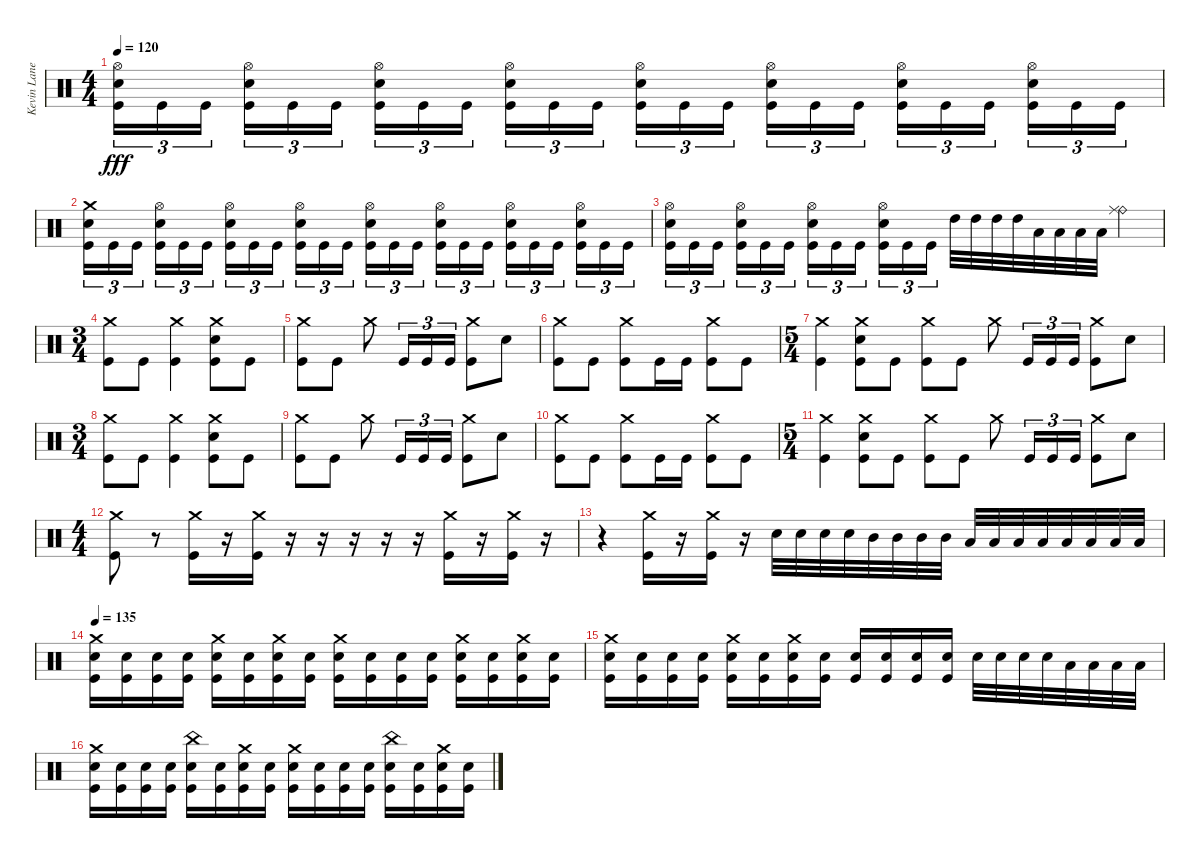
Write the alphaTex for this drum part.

\track ("Kevin Lane" "Kevin Lane") {instrument percussion}
\staff {score}
\articulation defaults
\ts (4 4)
\tempo 120
\clef neutral
\ks c
("Hi-Hat (open)" "Snare (hit) 2" "Kick (hit)").16{tu (3 2) dy fff} "Kick (hit)".16{tu (3 2)} "Kick (hit)".16{tu (3 2) beam splitsecondary} ("Hi-Hat (open)" "Snare (hit) 2" "Kick (hit)").16{tu (3 2)} "Kick (hit)".16{tu (3 2)} "Kick (hit)".16{tu (3 2)} ("Hi-Hat (open)" "Snare (hit) 2" "Kick (hit)").16{tu (3 2)} "Kick (hit)".16{tu (3 2)} "Kick (hit)".16{tu (3 2) beam splitsecondary} ("Hi-Hat (open)" "Snare (hit) 2" "Kick (hit)").16{tu (3 2)} "Kick (hit)".16{tu (3 2)} "Kick (hit)".16{tu (3 2)} ("Hi-Hat (open)" "Snare (hit) 2" "Kick (hit)").16{tu (3 2)} "Kick (hit)".16{tu (3 2)} "Kick (hit)".16{tu (3 2) beam splitsecondary} ("Hi-Hat (open)" "Snare (hit) 2" "Kick (hit)").16{tu (3 2)} "Kick (hit)".16{tu (3 2)} "Kick (hit)".16{tu (3 2)} ("Hi-Hat (open)" "Snare (hit) 2" "Kick (hit)").16{tu (3 2)} "Kick (hit)".16{tu (3 2)} "Kick (hit)".16{tu (3 2) beam splitsecondary} ("Hi-Hat (open)" "Snare (hit) 2" "Kick (hit)").16{tu (3 2)} "Kick (hit)".16{tu (3 2)} "Kick (hit)".16{tu (3 2)} |
("Crash medium (hit)" "Snare (hit) 2" "Kick (hit)").16{tu (3 2)} "Kick (hit)".16{tu (3 2)} "Kick (hit)".16{tu (3 2) beam splitsecondary} ("Hi-Hat (open)" "Snare (hit) 2" "Kick (hit)").16{tu (3 2)} "Kick (hit)".16{tu (3 2)} "Kick (hit)".16{tu (3 2)} ("Hi-Hat (open)" "Snare (hit) 2" "Kick (hit)").16{tu (3 2)} "Kick (hit)".16{tu (3 2)} "Kick (hit)".16{tu (3 2) beam splitsecondary} ("Hi-Hat (open)" "Snare (hit) 2" "Kick (hit)").16{tu (3 2)} "Kick (hit)".16{tu (3 2)} "Kick (hit)".16{tu (3 2)} ("Hi-Hat (open)" "Snare (hit) 2" "Kick (hit)").16{tu (3 2)} "Kick (hit)".16{tu (3 2)} "Kick (hit)".16{tu (3 2) beam splitsecondary} ("Hi-Hat (open)" "Snare (hit) 2" "Kick (hit)").16{tu (3 2)} "Kick (hit)".16{tu (3 2)} "Kick (hit)".16{tu (3 2)} ("Hi-Hat (open)" "Snare (hit) 2" "Kick (hit)").16{tu (3 2)} "Kick (hit)".16{tu (3 2)} "Kick (hit)".16{tu (3 2) beam splitsecondary} ("Hi-Hat (open)" "Snare (hit) 2" "Kick (hit)").16{tu (3 2)} "Kick (hit)".16{tu (3 2)} "Kick (hit)".16{tu (3 2)} |
("Hi-Hat (open)" "Snare (hit) 2" "Kick (hit)").16{tu (3 2)} "Kick (hit)".16{tu (3 2)} "Kick (hit)".16{tu (3 2) beam splitsecondary} ("Hi-Hat (open)" "Snare (hit) 2" "Kick (hit)").16{tu (3 2)} "Kick (hit)".16{tu (3 2)} "Kick (hit)".16{tu (3 2)} ("Hi-Hat (open)" "Snare (hit) 2" "Kick (hit)").16{tu (3 2)} "Kick (hit)".16{tu (3 2)} "Kick (hit)".16{tu (3 2) beam splitsecondary} ("Hi-Hat (open)" "Snare (hit) 2" "Kick (hit)").16{tu (3 2)} "Kick (hit)".16{tu (3 2)} "Kick (hit)".16{tu (3 2)} "High Tom (hit)".32 "High Tom (hit)".32 "High Tom (hit)".32 "High Tom (hit)".32 "Low Tom (hit)".32 "Low Tom (hit)".32 "Low Tom (hit)".32 "Low Tom (hit)".32 ("Ride (bell)" "Ride (middle)").4 |
\ts (3 4)
("Crash medium (hit)" "Kick (hit)").8 "Kick (hit)".8 ("Crash medium (hit)" "Kick (hit)").4 ("Crash medium (hit)" "Snare (hit) 2" "Kick (hit)").8 "Kick (hit)".8 |
("Crash medium (hit)" "Kick (hit)").8 "Kick (hit)".8 "Crash medium (hit)".8 "Kick (hit)".16{tu (3 2)} "Kick (hit)".16{tu (3 2)} "Kick (hit)".16{tu (3 2)} ("Crash medium (hit)" "Kick (hit)").8 "Snare (hit) 2".8 |
("Crash medium (hit)" "Kick (hit)").8 "Kick (hit)".8 ("Crash medium (hit)" "Kick (hit)").8 "Kick (hit)".16 "Kick (hit)".16 ("Crash medium (hit)" "Kick (hit)").8 "Kick (hit)".8 |
\ts (5 4)
("Crash medium (hit)" "Kick (hit)").4 ("Crash medium (hit)" "Snare (hit) 2" "Kick (hit)").8 "Kick (hit)".8 ("Crash medium (hit)" "Kick (hit)").8 "Kick (hit)".8 "Crash medium (hit)".8 "Kick (hit)".16{tu (3 2)} "Kick (hit)".16{tu (3 2)} "Kick (hit)".16{tu (3 2)} ("Crash medium (hit)" "Kick (hit)").8 "Snare (hit) 2".8 |
\ts (3 4)
("Crash medium (hit)" "Kick (hit)").8 "Kick (hit)".8 ("Crash medium (hit)" "Kick (hit)").4 ("Crash medium (hit)" "Snare (hit) 2" "Kick (hit)").8 "Kick (hit)".8 |
("Crash medium (hit)" "Kick (hit)").8 "Kick (hit)".8 "Crash medium (hit)".8 "Kick (hit)".16{tu (3 2)} "Kick (hit)".16{tu (3 2)} "Kick (hit)".16{tu (3 2)} ("Crash medium (hit)" "Kick (hit)").8 "Snare (hit) 2".8 |
("Crash medium (hit)" "Kick (hit)").8 "Kick (hit)".8 ("Crash medium (hit)" "Kick (hit)").8 "Kick (hit)".16 "Kick (hit)".16 ("Crash medium (hit)" "Kick (hit)").8 "Kick (hit)".8 |
\ts (5 4)
("Crash medium (hit)" "Kick (hit)").4 ("Crash medium (hit)" "Snare (hit) 2" "Kick (hit)").8 "Kick (hit)".8 ("Crash medium (hit)" "Kick (hit)").8 "Kick (hit)".8 "Crash medium (hit)".8 "Kick (hit)".16{tu (3 2)} "Kick (hit)".16{tu (3 2)} "Kick (hit)".16{tu (3 2)} ("Crash medium (hit)" "Kick (hit)").8 "Snare (hit) 2".8 |
\ts (4 4)
("Crash medium (hit)" "Kick (hit)").8{volume 13} r.8{volume 0} ("Crash medium (hit)" "Kick (hit)").16{volume 13} r.16{volume 0} ("Crash medium (hit)" "Kick (hit)").16{volume 13} r.16{volume 0} r.16 r.16 r.16 r.16 ("Crash medium (hit)" "Kick (hit)").16{volume 13} r.16{volume 0} ("Crash medium (hit)" "Kick (hit)").16{volume 13} r.16{volume 0} |
r.4 ("Crash medium (hit)" "Kick (hit)").16{volume 13} r.16{volume 0} ("Crash medium (hit)" "Kick (hit)").16{volume 13} r.16{volume 0} "Snare (hit) 2".32{volume 13} "Snare (hit) 2".32 "Snare (hit) 2".32 "Snare (hit) 2".32 "Mid Tom (hit)".32 "Mid Tom (hit)".32 "Mid Tom (hit)".32 "Mid Tom (hit)".32 "Low Tom (hit)".32 "Low Tom (hit)".32 "Low Tom (hit)".32 "Low Tom (hit)".32 "Low Floor Tom (hit)".32 "Low Floor Tom (hit)".32 "Low Floor Tom (hit)".32 "Low Floor Tom (hit)".32 |
\tempo 135
("Crash medium (hit)" "Snare (hit) 2" "Kick (hit)").16 ("Snare (hit) 2" "Kick (hit)").16 ("Snare (hit) 2" "Kick (hit)").16 ("Snare (hit) 2" "Kick (hit)").16 ("Crash medium (hit)" "Snare (hit) 2" "Kick (hit)").16 ("Snare (hit) 2" "Kick (hit)").16 ("Crash medium (hit)" "Snare (hit) 2" "Kick (hit)").16 ("Snare (hit) 2" "Kick (hit)").16 ("Crash medium (hit)" "Snare (hit) 2" "Kick (hit)").16 ("Snare (hit) 2" "Kick (hit)").16 ("Snare (hit) 2" "Kick (hit)").16 ("Snare (hit) 2" "Kick (hit)").16 ("Crash medium (hit)" "Snare (hit) 2" "Kick (hit)").16 ("Snare (hit) 2" "Kick (hit)").16 ("Crash medium (hit)" "Snare (hit) 2" "Kick (hit)").16 ("Snare (hit) 2" "Kick (hit)").16 |
("Crash medium (hit)" "Snare (hit) 2" "Kick (hit)").16 ("Snare (hit) 2" "Kick (hit)").16 ("Snare (hit) 2" "Kick (hit)").16 ("Snare (hit) 2" "Kick (hit)").16 ("Crash medium (hit)" "Snare (hit) 2" "Kick (hit)").16 ("Snare (hit) 2" "Kick (hit)").16 ("Crash medium (hit)" "Snare (hit) 2" "Kick (hit)").16 ("Snare (hit) 2" "Kick (hit)").16 ("Snare (hit) 2" "Kick (hit)").16 ("Snare (hit) 2" "Kick (hit)").16 ("Snare (hit) 2" "Kick (hit)").16 ("Snare (hit) 2" "Kick (hit)").16 "Snare (hit) 2".32 "Snare (hit) 2".32 "Snare (hit) 2".32 "Snare (hit) 2".32 "Low Tom (hit)".32 "Low Tom (hit)".32 "Low Tom (hit)".32 "Low Tom (hit)".32 |
("Crash medium (hit)" "Snare (hit) 2" "Kick (hit)").16 ("Snare (hit) 2" "Kick (hit)").16 ("Snare (hit) 2" "Kick (hit)").16 ("Snare (hit) 2" "Kick (hit)").16 ("China (hit)" "Snare (hit) 2" "Kick (hit)").16 ("Snare (hit) 2" "Kick (hit)").16 ("Crash medium (hit)" "Snare (hit) 2" "Kick (hit)").16 ("Snare (hit) 2" "Kick (hit)").16 ("Crash medium (hit)" "Snare (hit) 2" "Kick (hit)").16 ("Snare (hit) 2" "Kick (hit)").16 ("Snare (hit) 2" "Kick (hit)").16 ("Snare (hit) 2" "Kick (hit)").16 ("China (hit)" "Snare (hit) 2" "Kick (hit)").16 ("Snare (hit) 2" "Kick (hit)").16 ("Crash medium (hit)" "Snare (hit) 2" "Kick (hit)").16 ("Snare (hit) 2" "Kick (hit)").16
